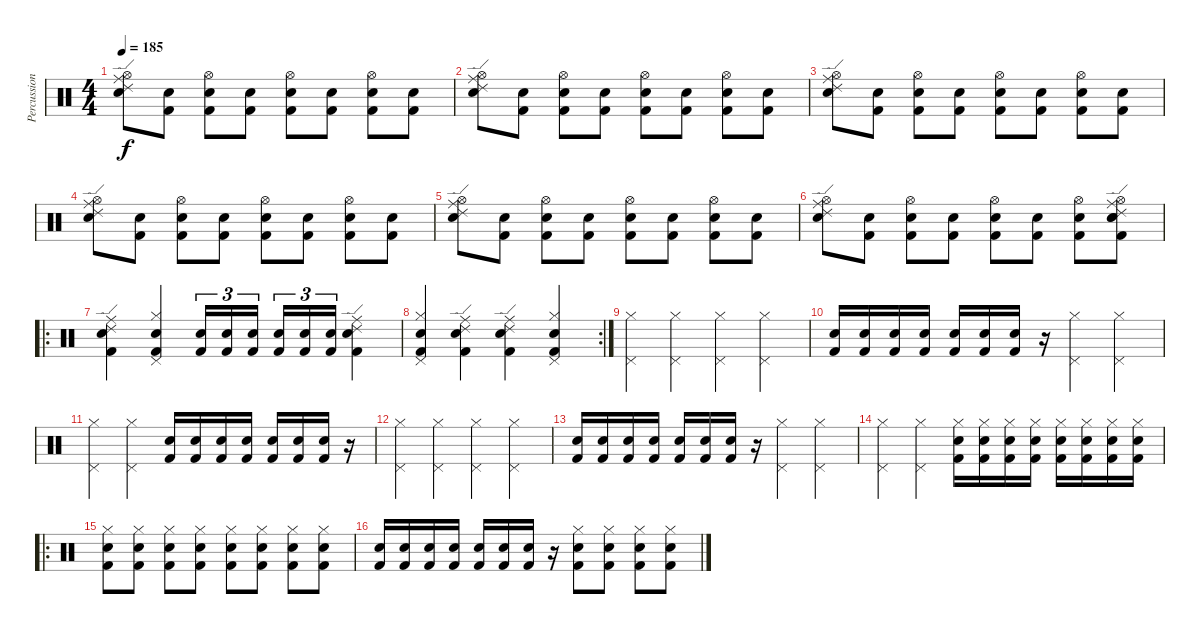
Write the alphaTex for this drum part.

\track ("Percussions" "Percussion") {instrument percussion}
\staff {score}
\articulation defaults
\ts (4 4)
\tempo 185
\clef neutral
\ks c
("Hi-Hat (open)" "Ride (middle)" "Ride (edge) 2" "Snare (hit) 2").8{dy f} ("Snare (hit) 2" "Kick (hit) 2").8 ("Hi-Hat (open)" "Snare (hit) 2" "Kick (hit) 2").8 ("Snare (hit) 2" "Kick (hit) 2").8 ("Hi-Hat (open)" "Snare (hit) 2" "Kick (hit) 2").8 ("Snare (hit) 2" "Kick (hit) 2").8 ("Hi-Hat (open)" "Snare (hit) 2" "Kick (hit) 2").8 ("Snare (hit) 2" "Kick (hit) 2").8 |
("Hi-Hat (open)" "Ride (middle)" "Ride (edge) 2" "Snare (hit) 2").8 ("Snare (hit) 2" "Kick (hit) 2").8 ("Hi-Hat (open)" "Snare (hit) 2" "Kick (hit) 2").8 ("Snare (hit) 2" "Kick (hit) 2").8 ("Hi-Hat (open)" "Snare (hit) 2" "Kick (hit) 2").8 ("Snare (hit) 2" "Kick (hit) 2").8 ("Hi-Hat (open)" "Snare (hit) 2" "Kick (hit) 2").8 ("Snare (hit) 2" "Kick (hit) 2").8 |
("Hi-Hat (open)" "Ride (middle)" "Ride (edge) 2" "Snare (hit) 2").8 ("Snare (hit) 2" "Kick (hit) 2").8 ("Hi-Hat (open)" "Snare (hit) 2" "Kick (hit) 2").8 ("Snare (hit) 2" "Kick (hit) 2").8 ("Hi-Hat (open)" "Snare (hit) 2" "Kick (hit) 2").8 ("Snare (hit) 2" "Kick (hit) 2").8 ("Hi-Hat (open)" "Snare (hit) 2" "Kick (hit) 2").8 ("Snare (hit) 2" "Kick (hit) 2").8 |
("Hi-Hat (open)" "Ride (middle)" "Ride (edge) 2" "Snare (hit) 2").8 ("Snare (hit) 2" "Kick (hit) 2").8 ("Hi-Hat (open)" "Snare (hit) 2" "Kick (hit) 2").8 ("Snare (hit) 2" "Kick (hit) 2").8 ("Hi-Hat (open)" "Snare (hit) 2" "Kick (hit) 2").8 ("Snare (hit) 2" "Kick (hit) 2").8 ("Hi-Hat (open)" "Snare (hit) 2" "Kick (hit) 2").8 ("Snare (hit) 2" "Kick (hit) 2").8 |
("Hi-Hat (open)" "Ride (middle)" "Ride (edge) 2" "Snare (hit) 2").8 ("Snare (hit) 2" "Kick (hit) 2").8 ("Hi-Hat (open)" "Snare (hit) 2" "Kick (hit) 2").8 ("Snare (hit) 2" "Kick (hit) 2").8 ("Hi-Hat (open)" "Snare (hit) 2" "Kick (hit) 2").8 ("Snare (hit) 2" "Kick (hit) 2").8 ("Hi-Hat (open)" "Snare (hit) 2" "Kick (hit) 2").8 ("Snare (hit) 2" "Kick (hit) 2").8 |
("Hi-Hat (open)" "Ride (middle)" "Ride (edge) 2" "Snare (hit) 2").8 ("Snare (hit) 2" "Kick (hit) 2").8 ("Hi-Hat (open)" "Snare (hit) 2" "Kick (hit) 2").8 ("Snare (hit) 2" "Kick (hit) 2").8 ("Hi-Hat (open)" "Snare (hit) 2" "Kick (hit) 2").8 ("Snare (hit) 2" "Kick (hit) 2").8 ("Hi-Hat (open)" "Snare (hit) 2" "Kick (hit) 2").8 ("Hi-Hat (open)" "Ride (middle)" "Ride (edge) 2" "Snare (hit) 2" "Electric Snare (hit)" "Kick (hit) 2").8 |
\ro
("Ride (edge) 2" "Ride (middle)" "Electric Snare (hit)" "Kick (hit) 2").4 ("Hi-Hat (closed)" "Pedal Hi-Hat (hit)" "Electric Snare (hit)" "Kick (hit) 2").4 ("Snare (hit) 2" "Kick (hit) 2").16{tu (3 2)} ("Snare (hit) 2" "Kick (hit) 2").16{tu (3 2)} ("Snare (hit) 2" "Kick (hit) 2").16{tu (3 2)} ("Snare (hit) 2" "Kick (hit) 2").16{tu (3 2)} ("Snare (hit) 2" "Kick (hit) 2").16{tu (3 2)} ("Snare (hit) 2" "Kick (hit) 2").16{tu (3 2)} ("Ride (edge) 2" "Ride (middle)" "Electric Snare (hit)" "Kick (hit) 2").4 |
\rc 2
("Hi-Hat (closed)" "Pedal Hi-Hat (hit)" "Electric Snare (hit)" "Kick (hit) 2").4 ("Ride (edge) 2" "Ride (middle)" "Electric Snare (hit)" "Kick (hit) 2").4 ("Ride (edge) 2" "Ride (middle)" "Electric Snare (hit)" "Kick (hit) 2").4 ("Hi-Hat (closed)" "Pedal Hi-Hat (hit)" "Electric Snare (hit)" "Kick (hit) 2").4 |
("Hi-Hat (closed)" "Pedal Hi-Hat (hit)").4 ("Hi-Hat (closed)" "Pedal Hi-Hat (hit)").4 ("Hi-Hat (closed)" "Pedal Hi-Hat (hit)").4 ("Hi-Hat (closed)" "Pedal Hi-Hat (hit)").4 |
("Electric Snare (hit)" "Kick (hit) 2").16 ("Electric Snare (hit)" "Kick (hit) 2").16 ("Electric Snare (hit)" "Kick (hit) 2").16 ("Electric Snare (hit)" "Kick (hit) 2").16 ("Electric Snare (hit)" "Kick (hit) 2").16 ("Electric Snare (hit)" "Kick (hit) 2").16 ("Electric Snare (hit)" "Kick (hit) 2").16 r.16 ("Hi-Hat (closed)" "Pedal Hi-Hat (hit)").4 ("Hi-Hat (closed)" "Pedal Hi-Hat (hit)").4 |
("Hi-Hat (closed)" "Pedal Hi-Hat (hit)").4 ("Hi-Hat (closed)" "Pedal Hi-Hat (hit)").4 ("Electric Snare (hit)" "Kick (hit) 2").16 ("Electric Snare (hit)" "Kick (hit) 2").16 ("Electric Snare (hit)" "Kick (hit) 2").16 ("Electric Snare (hit)" "Kick (hit) 2").16 ("Electric Snare (hit)" "Kick (hit) 2").16 ("Electric Snare (hit)" "Kick (hit) 2").16 ("Electric Snare (hit)" "Kick (hit) 2").16 r.16 |
("Hi-Hat (closed)" "Pedal Hi-Hat (hit)").4 ("Hi-Hat (closed)" "Pedal Hi-Hat (hit)").4 ("Hi-Hat (closed)" "Pedal Hi-Hat (hit)").4 ("Hi-Hat (closed)" "Pedal Hi-Hat (hit)").4 |
("Electric Snare (hit)" "Kick (hit) 2").16 ("Electric Snare (hit)" "Kick (hit) 2").16 ("Electric Snare (hit)" "Kick (hit) 2").16 ("Electric Snare (hit)" "Kick (hit) 2").16 ("Electric Snare (hit)" "Kick (hit) 2").16 ("Electric Snare (hit)" "Kick (hit) 2").16 ("Electric Snare (hit)" "Kick (hit) 2").16 r.16 ("Hi-Hat (closed)" "Pedal Hi-Hat (hit)").4 ("Hi-Hat (closed)" "Pedal Hi-Hat (hit)").4 |
("Hi-Hat (closed)" "Pedal Hi-Hat (hit)").4 ("Hi-Hat (closed)" "Pedal Hi-Hat (hit)").4 ("Hi-Hat (closed)" "Electric Snare (hit)" "Kick (hit) 2").16 ("Hi-Hat (closed)" "Snare (hit) 2" "Kick (hit) 2").16 ("Hi-Hat (closed)" "Electric Snare (hit)" "Kick (hit) 2").16 ("Hi-Hat (closed)" "Snare (hit) 2" "Kick (hit) 2").16 ("Hi-Hat (closed)" "Electric Snare (hit)" "Kick (hit) 2").16 ("Hi-Hat (closed)" "Snare (hit) 2" "Kick (hit) 2").16 ("Hi-Hat (closed)" "Electric Snare (hit)" "Kick (hit) 2").16 ("Hi-Hat (closed)" "Snare (hit) 2" "Kick (hit) 2").16 |
\ro
("Hi-Hat (closed)" "Snare (hit) 2" "Kick (hit) 2").8 ("Hi-Hat (closed)" "Snare (hit) 2" "Kick (hit) 2").8 ("Hi-Hat (closed)" "Snare (hit) 2" "Kick (hit) 2").8 ("Hi-Hat (closed)" "Snare (hit) 2" "Kick (hit) 2").8 ("Hi-Hat (closed)" "Snare (hit) 2" "Kick (hit) 2").8 ("Hi-Hat (closed)" "Snare (hit) 2" "Kick (hit) 2").8 ("Hi-Hat (closed)" "Snare (hit) 2" "Kick (hit) 2").8 ("Hi-Hat (closed)" "Snare (hit) 2" "Kick (hit) 2").8 |
("Snare (hit) 2" "Kick (hit) 2").16 ("Snare (hit) 2" "Kick (hit) 2").16 ("Snare (hit) 2" "Kick (hit) 2").16 ("Snare (hit) 2" "Kick (hit) 2").16 ("Snare (hit) 2" "Kick (hit) 2").16 ("Snare (hit) 2" "Kick (hit) 2").16 ("Snare (hit) 2" "Kick (hit) 2").16 r.16 ("Hi-Hat (closed)" "Snare (hit) 2" "Kick (hit) 2").8 ("Hi-Hat (closed)" "Snare (hit) 2" "Kick (hit) 2").8 ("Hi-Hat (closed)" "Snare (hit) 2" "Kick (hit) 2").8 ("Hi-Hat (closed)" "Snare (hit) 2" "Kick (hit) 2").8
